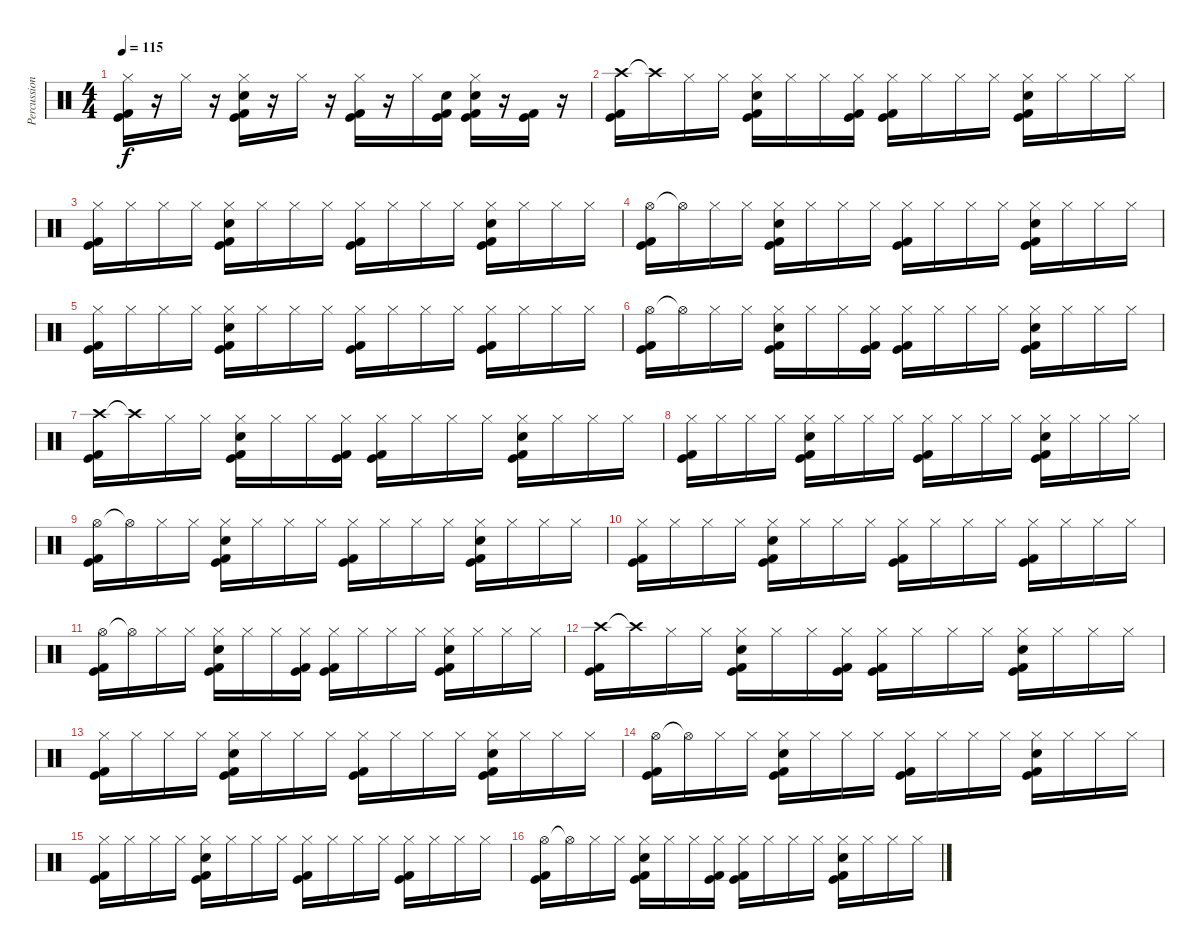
\track ("Percussions" "Percussion") {instrument percussion}
\staff {score}
\articulation defaults
\ts (4 4)
\tempo 115
\clef neutral
\ks c
("Hi-Hat (closed)" "Kick (hit) 2" "Kick (hit)").16{dy f} r.16 "Hi-Hat (closed)".16 r.16 ("Hi-Hat (closed)" "Kick (hit) 2" "Snare (hit) 2" "Kick (hit)").16 r.16 "Hi-Hat (closed)".16 r.16 ("Hi-Hat (closed)" "Kick (hit) 2" "Kick (hit)").16 r.16 "Hi-Hat (closed)".16 ("Kick (hit) 2" "Snare (hit) 2" "Kick (hit)").16 ("Hi-Hat (closed)" "Kick (hit) 2" "Snare (hit) 2" "Kick (hit)").16 r.16 ("Kick (hit) 2" "Kick (hit)").16 r.16 |
("Crash high (hit)" "Kick (hit) 2" "Kick (hit)").16 "Crash high (hit)"{t}.16 "Hi-Hat (closed)".16 "Hi-Hat (closed)".16 ("Hi-Hat (closed)" "Kick (hit) 2" "Snare (hit) 2" "Kick (hit)").16 "Hi-Hat (closed)".16 "Hi-Hat (closed)".16 ("Hi-Hat (closed)" "Kick (hit) 2" "Kick (hit)").16 ("Hi-Hat (closed)" "Kick (hit) 2" "Kick (hit)").16 "Hi-Hat (closed)".16 "Hi-Hat (closed)".16 "Hi-Hat (closed)".16 ("Hi-Hat (closed)" "Kick (hit) 2" "Snare (hit) 2" "Kick (hit)").16 "Hi-Hat (closed)".16 "Hi-Hat (closed)".16 "Hi-Hat (closed)".16 |
("Hi-Hat (closed)" "Kick (hit) 2" "Kick (hit)").16 "Hi-Hat (closed)".16 "Hi-Hat (closed)".16 "Hi-Hat (closed)".16 ("Hi-Hat (closed)" "Kick (hit) 2" "Snare (hit) 2" "Kick (hit)").16 "Hi-Hat (closed)".16 "Hi-Hat (closed)".16 "Hi-Hat (closed)".16 ("Hi-Hat (closed)" "Kick (hit) 2" "Kick (hit)").16 "Hi-Hat (closed)".16 "Hi-Hat (closed)".16 "Hi-Hat (closed)".16 ("Hi-Hat (closed)" "Kick (hit) 2" "Snare (hit) 2" "Kick (hit)").16 "Hi-Hat (closed)".16 "Hi-Hat (closed)".16 "Hi-Hat (closed)".16 |
("Hi-Hat (open)" "Kick (hit) 2" "Kick (hit)").16 "Hi-Hat (open)"{t}.16 "Hi-Hat (closed)".16 "Hi-Hat (closed)".16 ("Hi-Hat (closed)" "Kick (hit) 2" "Snare (hit) 2" "Kick (hit)").16 "Hi-Hat (closed)".16 "Hi-Hat (closed)".16 "Hi-Hat (closed)".16 ("Hi-Hat (closed)" "Kick (hit) 2" "Kick (hit)").16 "Hi-Hat (closed)".16 "Hi-Hat (closed)".16 "Hi-Hat (closed)".16 ("Hi-Hat (closed)" "Kick (hit) 2" "Snare (hit) 2" "Kick (hit)").16 "Hi-Hat (closed)".16 "Hi-Hat (closed)".16 "Hi-Hat (closed)".16 |
("Hi-Hat (closed)" "Kick (hit) 2" "Kick (hit)").16 "Hi-Hat (closed)".16 "Hi-Hat (closed)".16 "Hi-Hat (closed)".16 ("Hi-Hat (closed)" "Kick (hit) 2" "Snare (hit) 2" "Kick (hit)").16 "Hi-Hat (closed)".16 "Hi-Hat (closed)".16 "Hi-Hat (closed)".16 ("Hi-Hat (closed)" "Kick (hit) 2" "Kick (hit)").16 "Hi-Hat (closed)".16 "Hi-Hat (closed)".16 "Hi-Hat (closed)".16 ("Hi-Hat (closed)" "Kick (hit) 2" "Kick (hit)").16 "Hi-Hat (closed)".16 "Hi-Hat (closed)".16 "Hi-Hat (closed)".16 |
("Hi-Hat (open)" "Kick (hit) 2" "Kick (hit)").16 "Hi-Hat (open)"{t}.16 "Hi-Hat (closed)".16 "Hi-Hat (closed)".16 ("Hi-Hat (closed)" "Kick (hit) 2" "Snare (hit) 2" "Kick (hit)").16 "Hi-Hat (closed)".16 "Hi-Hat (closed)".16 ("Hi-Hat (closed)" "Kick (hit) 2" "Kick (hit)").16 ("Hi-Hat (closed)" "Kick (hit) 2" "Kick (hit)").16 "Hi-Hat (closed)".16 "Hi-Hat (closed)".16 "Hi-Hat (closed)".16 ("Hi-Hat (closed)" "Kick (hit) 2" "Snare (hit) 2" "Kick (hit)").16 "Hi-Hat (closed)".16 "Hi-Hat (closed)".16 "Hi-Hat (closed)".16 |
("Crash high (hit)" "Kick (hit) 2" "Kick (hit)").16 "Crash high (hit)"{t}.16 "Hi-Hat (closed)".16 "Hi-Hat (closed)".16 ("Hi-Hat (closed)" "Kick (hit) 2" "Snare (hit) 2" "Kick (hit)").16 "Hi-Hat (closed)".16 "Hi-Hat (closed)".16 ("Hi-Hat (closed)" "Kick (hit) 2" "Kick (hit)").16 ("Hi-Hat (closed)" "Kick (hit) 2" "Kick (hit)").16 "Hi-Hat (closed)".16 "Hi-Hat (closed)".16 "Hi-Hat (closed)".16 ("Hi-Hat (closed)" "Kick (hit) 2" "Snare (hit) 2" "Kick (hit)").16 "Hi-Hat (closed)".16 "Hi-Hat (closed)".16 "Hi-Hat (closed)".16 |
("Hi-Hat (closed)" "Kick (hit) 2" "Kick (hit)").16 "Hi-Hat (closed)".16 "Hi-Hat (closed)".16 "Hi-Hat (closed)".16 ("Hi-Hat (closed)" "Kick (hit) 2" "Snare (hit) 2" "Kick (hit)").16 "Hi-Hat (closed)".16 "Hi-Hat (closed)".16 "Hi-Hat (closed)".16 ("Hi-Hat (closed)" "Kick (hit) 2" "Kick (hit)").16 "Hi-Hat (closed)".16 "Hi-Hat (closed)".16 "Hi-Hat (closed)".16 ("Hi-Hat (closed)" "Kick (hit) 2" "Snare (hit) 2" "Kick (hit)").16 "Hi-Hat (closed)".16 "Hi-Hat (closed)".16 "Hi-Hat (closed)".16 |
("Hi-Hat (open)" "Kick (hit) 2" "Kick (hit)").16 "Hi-Hat (open)"{t}.16 "Hi-Hat (closed)".16 "Hi-Hat (closed)".16 ("Hi-Hat (closed)" "Kick (hit) 2" "Snare (hit) 2" "Kick (hit)").16 "Hi-Hat (closed)".16 "Hi-Hat (closed)".16 "Hi-Hat (closed)".16 ("Hi-Hat (closed)" "Kick (hit) 2" "Kick (hit)").16 "Hi-Hat (closed)".16 "Hi-Hat (closed)".16 "Hi-Hat (closed)".16 ("Hi-Hat (closed)" "Kick (hit) 2" "Snare (hit) 2" "Kick (hit)").16 "Hi-Hat (closed)".16 "Hi-Hat (closed)".16 "Hi-Hat (closed)".16 |
("Hi-Hat (closed)" "Kick (hit) 2" "Kick (hit)").16 "Hi-Hat (closed)".16 "Hi-Hat (closed)".16 "Hi-Hat (closed)".16 ("Hi-Hat (closed)" "Kick (hit) 2" "Snare (hit) 2" "Kick (hit)").16 "Hi-Hat (closed)".16 "Hi-Hat (closed)".16 "Hi-Hat (closed)".16 ("Hi-Hat (closed)" "Kick (hit) 2" "Kick (hit)").16 "Hi-Hat (closed)".16 "Hi-Hat (closed)".16 "Hi-Hat (closed)".16 ("Hi-Hat (closed)" "Kick (hit) 2" "Kick (hit)").16 "Hi-Hat (closed)".16 "Hi-Hat (closed)".16 "Hi-Hat (closed)".16 |
("Hi-Hat (open)" "Kick (hit) 2" "Kick (hit)").16 "Hi-Hat (open)"{t}.16 "Hi-Hat (closed)".16 "Hi-Hat (closed)".16 ("Hi-Hat (closed)" "Kick (hit) 2" "Snare (hit) 2" "Kick (hit)").16 "Hi-Hat (closed)".16 "Hi-Hat (closed)".16 ("Hi-Hat (closed)" "Kick (hit) 2" "Kick (hit)").16 ("Hi-Hat (closed)" "Kick (hit) 2" "Kick (hit)").16 "Hi-Hat (closed)".16 "Hi-Hat (closed)".16 "Hi-Hat (closed)".16 ("Hi-Hat (closed)" "Kick (hit) 2" "Snare (hit) 2" "Kick (hit)").16 "Hi-Hat (closed)".16 "Hi-Hat (closed)".16 "Hi-Hat (closed)".16 |
("Crash high (hit)" "Kick (hit) 2" "Kick (hit)").16 "Crash high (hit)"{t}.16 "Hi-Hat (closed)".16 "Hi-Hat (closed)".16 ("Hi-Hat (closed)" "Kick (hit) 2" "Snare (hit) 2" "Kick (hit)").16 "Hi-Hat (closed)".16 "Hi-Hat (closed)".16 ("Hi-Hat (closed)" "Kick (hit) 2" "Kick (hit)").16 ("Hi-Hat (closed)" "Kick (hit) 2" "Kick (hit)").16 "Hi-Hat (closed)".16 "Hi-Hat (closed)".16 "Hi-Hat (closed)".16 ("Hi-Hat (closed)" "Kick (hit) 2" "Snare (hit) 2" "Kick (hit)").16 "Hi-Hat (closed)".16 "Hi-Hat (closed)".16 "Hi-Hat (closed)".16 |
("Hi-Hat (closed)" "Kick (hit) 2" "Kick (hit)").16 "Hi-Hat (closed)".16 "Hi-Hat (closed)".16 "Hi-Hat (closed)".16 ("Hi-Hat (closed)" "Kick (hit) 2" "Snare (hit) 2" "Kick (hit)").16 "Hi-Hat (closed)".16 "Hi-Hat (closed)".16 "Hi-Hat (closed)".16 ("Hi-Hat (closed)" "Kick (hit) 2" "Kick (hit)").16 "Hi-Hat (closed)".16 "Hi-Hat (closed)".16 "Hi-Hat (closed)".16 ("Hi-Hat (closed)" "Kick (hit) 2" "Snare (hit) 2" "Kick (hit)").16 "Hi-Hat (closed)".16 "Hi-Hat (closed)".16 "Hi-Hat (closed)".16 |
("Hi-Hat (open)" "Kick (hit) 2" "Kick (hit)").16 "Hi-Hat (open)"{t}.16 "Hi-Hat (closed)".16 "Hi-Hat (closed)".16 ("Hi-Hat (closed)" "Kick (hit) 2" "Snare (hit) 2" "Kick (hit)").16 "Hi-Hat (closed)".16 "Hi-Hat (closed)".16 "Hi-Hat (closed)".16 ("Hi-Hat (closed)" "Kick (hit) 2" "Kick (hit)").16 "Hi-Hat (closed)".16 "Hi-Hat (closed)".16 "Hi-Hat (closed)".16 ("Hi-Hat (closed)" "Kick (hit) 2" "Snare (hit) 2" "Kick (hit)").16 "Hi-Hat (closed)".16 "Hi-Hat (closed)".16 "Hi-Hat (closed)".16 |
("Hi-Hat (closed)" "Kick (hit) 2" "Kick (hit)").16 "Hi-Hat (closed)".16 "Hi-Hat (closed)".16 "Hi-Hat (closed)".16 ("Hi-Hat (closed)" "Kick (hit) 2" "Snare (hit) 2" "Kick (hit)").16 "Hi-Hat (closed)".16 "Hi-Hat (closed)".16 "Hi-Hat (closed)".16 ("Hi-Hat (closed)" "Kick (hit) 2" "Kick (hit)").16 "Hi-Hat (closed)".16 "Hi-Hat (closed)".16 "Hi-Hat (closed)".16 ("Hi-Hat (closed)" "Kick (hit) 2" "Kick (hit)").16 "Hi-Hat (closed)".16 "Hi-Hat (closed)".16 "Hi-Hat (closed)".16 |
("Hi-Hat (open)" "Kick (hit) 2" "Kick (hit)").16 "Hi-Hat (open)"{t}.16 "Hi-Hat (closed)".16 "Hi-Hat (closed)".16 ("Hi-Hat (closed)" "Kick (hit) 2" "Snare (hit) 2" "Kick (hit)").16 "Hi-Hat (closed)".16 "Hi-Hat (closed)".16 ("Hi-Hat (closed)" "Kick (hit) 2" "Kick (hit)").16 ("Hi-Hat (closed)" "Kick (hit) 2" "Kick (hit)").16 "Hi-Hat (closed)".16 "Hi-Hat (closed)".16 "Hi-Hat (closed)".16 ("Hi-Hat (closed)" "Kick (hit) 2" "Snare (hit) 2" "Kick (hit)").16 "Hi-Hat (closed)".16 "Hi-Hat (closed)".16 "Hi-Hat (closed)".16
